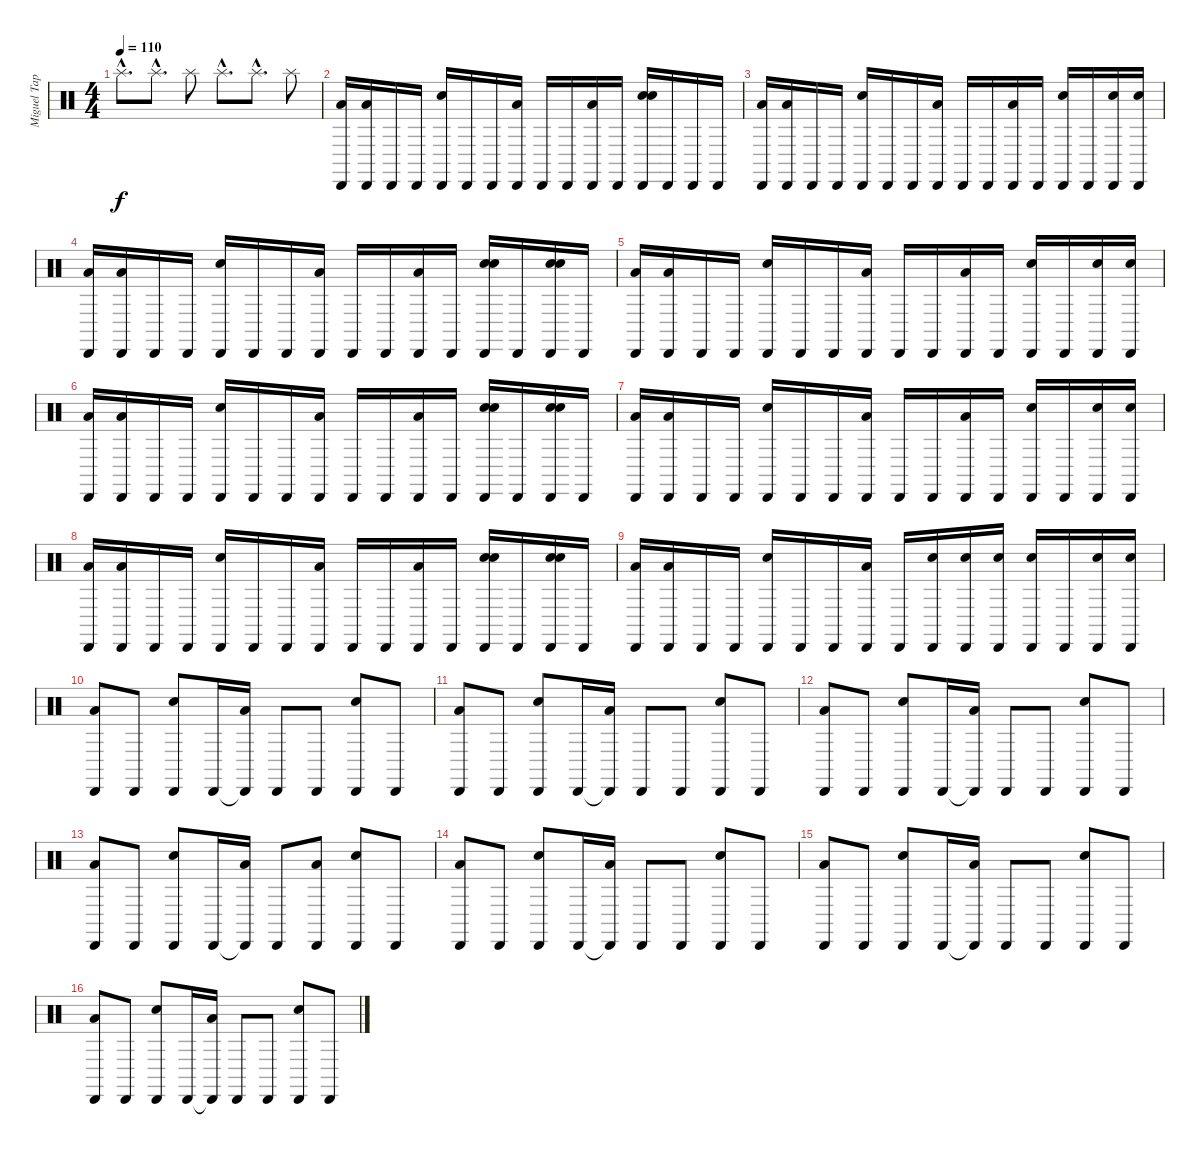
\track ("Miguel Tapia (Bateria)" "Miguel Tap") {instrument percussion}
\staff {score}
\articulation defaults
\ts (4 4)
\tempo 110
\clef neutral
\ks c "Splash (hit)"{hac}.8{d dy f} "Splash (hit)"{hac}.8{d} "Splash (hit)".8 "Splash (hit)"{hac}.8{d} "Splash (hit)"{hac}.8{d} "Splash (hit)".8
|
("Cabasa (hit)" "Low Tom (hit)").16 ("Cabasa (hit)" "Low Tom (hit)").16 "Cabasa (hit)".16 "Cabasa (hit)".16 ("Cabasa (hit)" "Snare (hit) 2").16 "Cabasa (hit)".16 "Cabasa (hit)".16 ("Cabasa (hit)" "Low Tom (hit)").16 "Cabasa (hit)".16 "Cabasa (hit)".16 ("Cabasa (hit)" "Low Tom (hit)").16 "Cabasa (hit)".16 ("Cabasa (hit)" "Snare (hit) 2" "Electric Snare (hit)").16 "Cabasa (hit)".16 "Cabasa (hit)".16 "Cabasa (hit)".16 |
("Cabasa (hit)" "Low Tom (hit)").16 ("Cabasa (hit)" "Low Tom (hit)").16 "Cabasa (hit)".16 "Cabasa (hit)".16 ("Cabasa (hit)" "Snare (hit) 2").16 "Cabasa (hit)".16 "Cabasa (hit)".16 ("Cabasa (hit)" "Low Tom (hit)").16 "Cabasa (hit)".16 "Cabasa (hit)".16 ("Cabasa (hit)" "Low Tom (hit)").16 "Cabasa (hit)".16 ("Cabasa (hit)" "Snare (hit) 2").16 "Cabasa (hit)".16 ("Cabasa (hit)" "Snare (hit) 2").16 ("Cabasa (hit)" "Snare (hit) 2").16 |
("Cabasa (hit)" "Low Tom (hit)").16 ("Cabasa (hit)" "Low Tom (hit)").16 "Cabasa (hit)".16 "Cabasa (hit)".16 ("Cabasa (hit)" "Snare (hit) 2").16 "Cabasa (hit)".16 "Cabasa (hit)".16 ("Cabasa (hit)" "Low Tom (hit)").16 "Cabasa (hit)".16 "Cabasa (hit)".16 ("Cabasa (hit)" "Low Tom (hit)").16 "Cabasa (hit)".16 ("Cabasa (hit)" "Snare (hit) 2" "Electric Snare (hit)").16 "Cabasa (hit)".16 ("Cabasa (hit)" "Snare (hit) 2" "Electric Snare (hit)").16 "Cabasa (hit)".16 |
("Cabasa (hit)" "Low Tom (hit)").16 ("Cabasa (hit)" "Low Tom (hit)").16 "Cabasa (hit)".16 "Cabasa (hit)".16 ("Cabasa (hit)" "Snare (hit) 2").16 "Cabasa (hit)".16 "Cabasa (hit)".16 ("Cabasa (hit)" "Low Tom (hit)").16 "Cabasa (hit)".16 "Cabasa (hit)".16 ("Cabasa (hit)" "Low Tom (hit)").16 "Cabasa (hit)".16 ("Cabasa (hit)" "Snare (hit) 2").16 "Cabasa (hit)".16 ("Cabasa (hit)" "Snare (hit) 2").16 ("Cabasa (hit)" "Snare (hit) 2").16 |
("Cabasa (hit)" "Low Tom (hit)").16 ("Cabasa (hit)" "Low Tom (hit)").16 "Cabasa (hit)".16 "Cabasa (hit)".16 ("Cabasa (hit)" "Snare (hit) 2").16 "Cabasa (hit)".16 "Cabasa (hit)".16 ("Cabasa (hit)" "Low Tom (hit)").16 "Cabasa (hit)".16 "Cabasa (hit)".16 ("Cabasa (hit)" "Low Tom (hit)").16 "Cabasa (hit)".16 ("Cabasa (hit)" "Snare (hit) 2" "Electric Snare (hit)").16 "Cabasa (hit)".16 ("Cabasa (hit)" "Snare (hit) 2" "Electric Snare (hit)").16 "Cabasa (hit)".16 |
("Cabasa (hit)" "Low Tom (hit)").16 ("Cabasa (hit)" "Low Tom (hit)").16 "Cabasa (hit)".16 "Cabasa (hit)".16 ("Cabasa (hit)" "Snare (hit) 2").16 "Cabasa (hit)".16 "Cabasa (hit)".16 ("Cabasa (hit)" "Low Tom (hit)").16 "Cabasa (hit)".16 "Cabasa (hit)".16 ("Cabasa (hit)" "Low Tom (hit)").16 "Cabasa (hit)".16 ("Cabasa (hit)" "Snare (hit) 2").16 "Cabasa (hit)".16 ("Cabasa (hit)" "Snare (hit) 2").16 ("Cabasa (hit)" "Snare (hit) 2").16 |
("Cabasa (hit)" "Low Tom (hit)").16 ("Cabasa (hit)" "Low Tom (hit)").16 "Cabasa (hit)".16 "Cabasa (hit)".16 ("Cabasa (hit)" "Snare (hit) 2").16 "Cabasa (hit)".16 "Cabasa (hit)".16 ("Cabasa (hit)" "Low Tom (hit)").16 "Cabasa (hit)".16 "Cabasa (hit)".16 ("Cabasa (hit)" "Low Tom (hit)").16 "Cabasa (hit)".16 ("Cabasa (hit)" "Snare (hit) 2" "Electric Snare (hit)").16 "Cabasa (hit)".16 ("Cabasa (hit)" "Snare (hit) 2" "Electric Snare (hit)").16 "Cabasa (hit)".16 |
("Cabasa (hit)" "Low Tom (hit)").16 ("Cabasa (hit)" "Low Tom (hit)").16 "Cabasa (hit)".16 "Cabasa (hit)".16 ("Cabasa (hit)" "Snare (hit) 2").16 "Cabasa (hit)".16 "Cabasa (hit)".16 ("Cabasa (hit)" "Low Tom (hit)").16 "Cabasa (hit)".16 ("Cabasa (hit)" "Snare (hit) 2").16 ("Cabasa (hit)" "Snare (hit) 2").16 ("Cabasa (hit)" "Snare (hit) 2").16 ("Cabasa (hit)" "Snare (hit) 2").16 "Cabasa (hit)".16 ("Cabasa (hit)" "Snare (hit) 2").16 ("Cabasa (hit)" "Snare (hit) 2").16 |
("Cabasa (hit)" "Low Tom (hit)").8 "Cabasa (hit)".8 ("Cabasa (hit)" "Snare (hit) 2").8 "Cabasa (hit)".16 ("Cabasa (hit)"{t} "Low Tom (hit)").16 "Cabasa (hit)".8 "Cabasa (hit)".8 ("Cabasa (hit)" "Snare (hit) 2").8 "Cabasa (hit)".8 |
("Cabasa (hit)" "Low Tom (hit)").8 "Cabasa (hit)".8 ("Cabasa (hit)" "Snare (hit) 2").8 "Cabasa (hit)".16 ("Cabasa (hit)"{t} "Low Tom (hit)").16 "Cabasa (hit)".8 "Cabasa (hit)".8 ("Cabasa (hit)" "Snare (hit) 2").8 "Cabasa (hit)".8 |
("Cabasa (hit)" "Low Tom (hit)").8 "Cabasa (hit)".8 ("Cabasa (hit)" "Snare (hit) 2").8 "Cabasa (hit)".16 ("Cabasa (hit)"{t} "Low Tom (hit)").16 "Cabasa (hit)".8 "Cabasa (hit)".8 ("Cabasa (hit)" "Snare (hit) 2").8 "Cabasa (hit)".8 |
("Cabasa (hit)" "Low Tom (hit)").8 "Cabasa (hit)".8 ("Cabasa (hit)" "Snare (hit) 2").8 "Cabasa (hit)".16 ("Cabasa (hit)"{t} "Low Tom (hit)").16 "Cabasa (hit)".8 ("Cabasa (hit)" "Low Tom (hit)").8 ("Cabasa (hit)" "Snare (hit) 2").8 "Cabasa (hit)".8 |
("Cabasa (hit)" "Low Tom (hit)").8 "Cabasa (hit)".8 ("Cabasa (hit)" "Snare (hit) 2").8 "Cabasa (hit)".16 ("Cabasa (hit)"{t} "Low Tom (hit)").16 "Cabasa (hit)".8 "Cabasa (hit)".8 ("Cabasa (hit)" "Snare (hit) 2").8 "Cabasa (hit)".8 |
("Cabasa (hit)" "Low Tom (hit)").8 "Cabasa (hit)".8 ("Cabasa (hit)" "Snare (hit) 2").8 "Cabasa (hit)".16 ("Cabasa (hit)"{t} "Low Tom (hit)").16 "Cabasa (hit)".8 "Cabasa (hit)".8 ("Cabasa (hit)" "Snare (hit) 2").8 "Cabasa (hit)".8 |
("Cabasa (hit)" "Low Tom (hit)").8 "Cabasa (hit)".8 ("Cabasa (hit)" "Snare (hit) 2").8 "Cabasa (hit)".16 ("Cabasa (hit)"{t} "Low Tom (hit)").16 "Cabasa (hit)".8 "Cabasa (hit)".8 ("Cabasa (hit)" "Snare (hit) 2").8 "Cabasa (hit)".8
